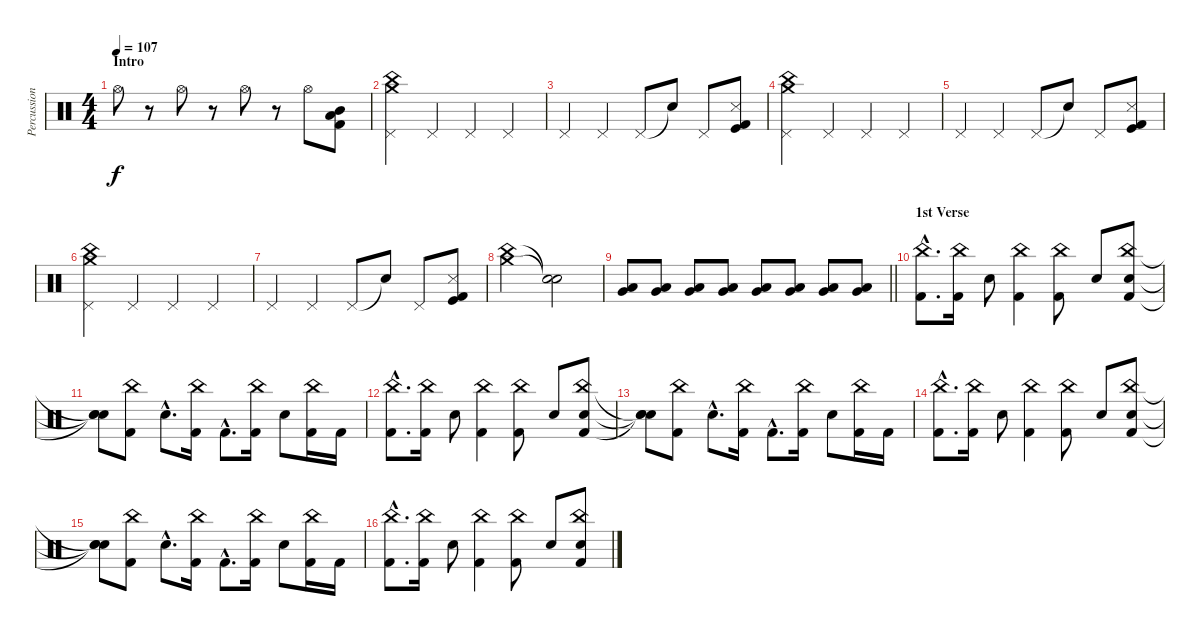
\track ("Percussion" "Percussion") {instrument percussion}
\staff {score}
\articulation defaults
\ts (4 4)
\section ("" "Intro")
\tempo 107
\clef neutral
\ks c "Hi-Hat (open)".8{dy f}
r.8 "Hi-Hat (open)".8 r.8 "Hi-Hat (open)".8 r.8 "Hi-Hat (open)".8 ("Mid Tom (hit)" "Low Tom (hit)" "Kick (hit) 2").8 |
("Crash medium (hit)" "China (hit)" "Pedal Hi-Hat (hit)").4 "Pedal Hi-Hat (hit)".4 "Pedal Hi-Hat (hit)".4 "Pedal Hi-Hat (hit)".4 |
"Pedal Hi-Hat (hit)".4 "Pedal Hi-Hat (hit)".4 "Pedal Hi-Hat (hit)".8 "Snare (hit)"{t}.8 "Pedal Hi-Hat (hit)".8 ("Snare (side stick) 3" "Kick (hit)" "Kick (hit) 2").8 |
("Crash medium (hit)" "China (hit)" "Pedal Hi-Hat (hit)").4 "Pedal Hi-Hat (hit)".4 "Pedal Hi-Hat (hit)".4 "Pedal Hi-Hat (hit)".4 |
"Pedal Hi-Hat (hit)".4 "Pedal Hi-Hat (hit)".4 "Pedal Hi-Hat (hit)".8 "Snare (hit)"{t}.8 "Pedal Hi-Hat (hit)".8 ("Snare (side stick) 3" "Kick (hit)" "Kick (hit) 2").8 |
("Crash medium (hit)" "China (hit)" "Pedal Hi-Hat (hit)").4 "Pedal Hi-Hat (hit)".4 "Pedal Hi-Hat (hit)".4 "Pedal Hi-Hat (hit)".4 |
"Pedal Hi-Hat (hit)".4 "Pedal Hi-Hat (hit)".4 "Pedal Hi-Hat (hit)".8 "Snare (hit)"{t}.8 "Pedal Hi-Hat (hit)".8 ("Snare (side stick) 3" "Kick (hit)" "Kick (hit) 2").8 |
("Crash medium (hit)" "China (hit)").2 ("Snare (hit)"{t} "Snare (hit)"{t}).2{volume 0} |
\barLineRight lightlight
("Low Tom (hit)" "Very Low Tom (hit)").8{volume 13} ("Low Tom (hit)" "Very Low Tom (hit)").8 ("Low Tom (hit)" "Very Low Tom (hit)").8 ("Low Tom (hit)" "Very Low Tom (hit)").8 ("Low Tom (hit)" "Very Low Tom (hit)").8 ("Low Tom (hit)" "Very Low Tom (hit)").8 ("Low Tom (hit)" "Very Low Tom (hit)").8 ("Low Tom (hit)" "Very Low Tom (hit)").8 |
\section ("" "1st Verse")
("China (hit)"{hac} "Kick (hit) 2"{hac}).8{d} ("China (hit)" "Kick (hit) 2").16 "Electric Snare (hit)".8 ("China (hit)" "Kick (hit) 2").4 ("China (hit)" "Kick (hit) 2").8 "Electric Snare (hit)".8 ("China (hit)" "Electric Snare (hit)" "Kick (hit) 2").8 |
("Snare (hit)"{t} "Snare (hit)"{t} "Snare (hit)"{t}).8 ("China (hit)" "Kick (hit) 2").8 "Electric Snare (hit)"{hac}.8{d} ("China (hit)" "Kick (hit) 2").16 "Kick (hit) 2"{hac}.8{d} ("China (hit)" "Kick (hit) 2").16 "Electric Snare (hit)".8 ("China (hit)" "Kick (hit) 2").16 "Kick (hit) 2".16 |
("China (hit)"{hac} "Kick (hit) 2"{hac}).8{d} ("China (hit)" "Kick (hit) 2").16 "Electric Snare (hit)".8 ("China (hit)" "Kick (hit) 2").4 ("China (hit)" "Kick (hit) 2").8 "Electric Snare (hit)".8 ("China (hit)" "Electric Snare (hit)" "Kick (hit) 2").8 |
("Snare (hit)"{t} "Snare (hit)"{t} "Snare (hit)"{t}).8 ("China (hit)" "Kick (hit) 2").8 "Electric Snare (hit)"{hac}.8{d} ("China (hit)" "Kick (hit) 2").16 "Kick (hit) 2"{hac}.8{d} ("China (hit)" "Kick (hit) 2").16 "Electric Snare (hit)".8 ("China (hit)" "Kick (hit) 2").16 "Kick (hit) 2".16 |
("China (hit)"{hac} "Kick (hit) 2"{hac}).8{d} ("China (hit)" "Kick (hit) 2").16 "Electric Snare (hit)".8 ("China (hit)" "Kick (hit) 2").4 ("China (hit)" "Kick (hit) 2").8 "Electric Snare (hit)".8 ("China (hit)" "Electric Snare (hit)" "Kick (hit) 2").8 |
("Snare (hit)"{t} "Snare (hit)"{t} "Snare (hit)"{t}).8 ("China (hit)" "Kick (hit) 2").8 "Electric Snare (hit)"{hac}.8{d} ("China (hit)" "Kick (hit) 2").16 "Kick (hit) 2"{hac}.8{d} ("China (hit)" "Kick (hit) 2").16 "Electric Snare (hit)".8 ("China (hit)" "Kick (hit) 2").16 "Kick (hit) 2".16 |
("China (hit)"{hac} "Kick (hit) 2"{hac}).8{d} ("China (hit)" "Kick (hit) 2").16 "Electric Snare (hit)".8 ("China (hit)" "Kick (hit) 2").4 ("China (hit)" "Kick (hit) 2").8 "Electric Snare (hit)".8 ("China (hit)" "Electric Snare (hit)" "Kick (hit) 2").8
